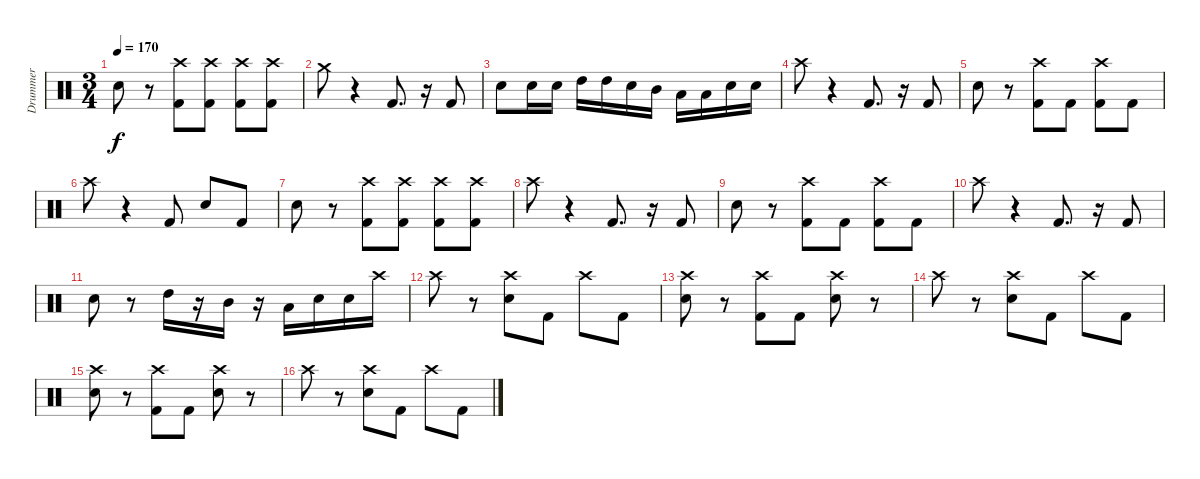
\track ("Drummer" "Drummer") {instrument percussion}
\staff {score}
\articulation defaults
\ts (3 4)
\tempo 170
\clef neutral
\ks c "Electric Snare (hit)".8{dy f}
r.8 ("Crash high (hit)" "Kick (hit) 2").8 ("Crash high (hit)" "Kick (hit) 2").8 ("Crash high (hit)" "Kick (hit) 2").8 ("Crash high (hit)" "Kick (hit) 2").8 |
"Crash medium (hit)".8 r.4 "Kick (hit) 2".8{d} r.16 "Kick (hit) 2".8 |
"Electric Snare (hit)".8 "Electric Snare (hit)".16 "Electric Snare (hit)".16 "High Tom (hit)".16 "High Tom (hit)".16 "Electric Snare (hit)".16 "Mid Tom (hit)".16 "Low Tom (hit)".16 "Low Tom (hit)".16 "Electric Snare (hit)".16 "Electric Snare (hit)".16 |
"Crash high (hit)".8 r.4 "Kick (hit) 2".8{d} r.16 "Kick (hit) 2".8 |
"Electric Snare (hit)".8 r.8 ("Crash high (hit)" "Kick (hit) 2").8 "Kick (hit) 2".8 ("Crash high (hit)" "Kick (hit) 2").8 "Kick (hit) 2".8 |
"Crash high (hit)".8 r.4 "Kick (hit) 2".8 "Electric Snare (hit)".8 "Kick (hit) 2".8 |
"Electric Snare (hit)".8 r.8 ("Crash high (hit)" "Kick (hit) 2").8 ("Crash high (hit)" "Kick (hit) 2").8 ("Crash high (hit)" "Kick (hit) 2").8 ("Crash high (hit)" "Kick (hit) 2").8 |
"Crash high (hit)".8 r.4 "Kick (hit) 2".8{d} r.16 "Kick (hit) 2".8 |
"Electric Snare (hit)".8 r.8 ("Crash high (hit)" "Kick (hit) 2").8 "Kick (hit) 2".8 ("Crash high (hit)" "Kick (hit) 2").8 "Kick (hit) 2".8 |
"Crash high (hit)".8 r.4 "Kick (hit) 2".8{d} r.16 "Kick (hit) 2".8 |
"Electric Snare (hit)".8 r.8 "High Tom (hit)".16 r.16 "Mid Tom (hit)".16 r.16 "Low Tom (hit)".16 "Electric Snare (hit)".16 "Electric Snare (hit)".16 "Crash high (hit)".16 |
"Crash high (hit)".8 r.8 ("Crash high (hit)" "Electric Snare (hit)").8 "Kick (hit) 2".8 "Crash high (hit)".8 "Kick (hit) 2".8 |
("Crash high (hit)" "Electric Snare (hit)").8 r.8 ("Crash high (hit)" "Kick (hit) 2").8 "Kick (hit) 2".8 ("Crash high (hit)" "Electric Snare (hit)").8 r.8 |
"Crash high (hit)".8 r.8 ("Crash high (hit)" "Electric Snare (hit)").8 "Kick (hit) 2".8 "Crash high (hit)".8 "Kick (hit) 2".8 |
("Crash high (hit)" "Electric Snare (hit)").8 r.8 ("Crash high (hit)" "Kick (hit) 2").8 "Kick (hit) 2".8 ("Crash high (hit)" "Electric Snare (hit)").8 r.8 |
"Crash high (hit)".8 r.8 ("Crash high (hit)" "Electric Snare (hit)").8 "Kick (hit) 2".8 "Crash high (hit)".8 "Kick (hit) 2".8
